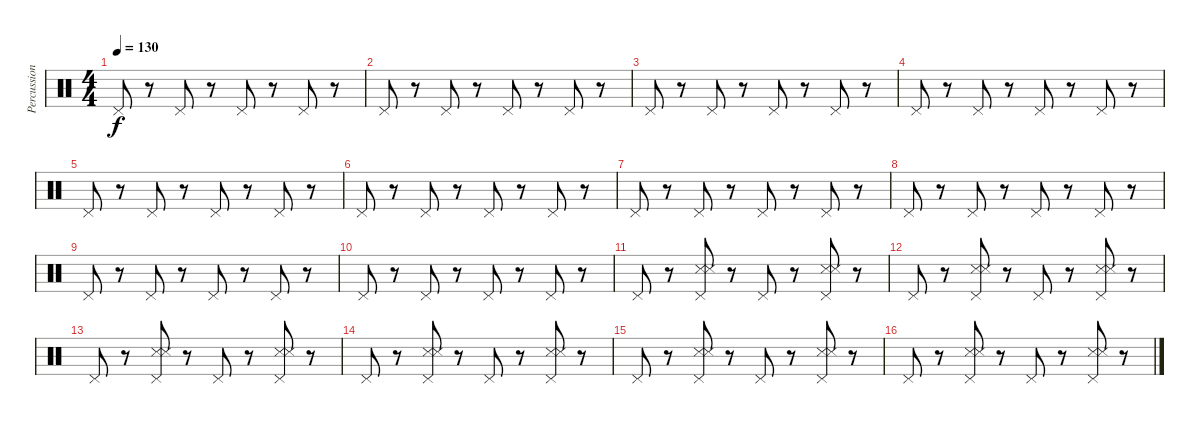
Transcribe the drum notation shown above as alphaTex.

\track ("Percussion" "Percussion") {instrument percussion}
\staff {score}
\articulation defaults
\ts (4 4)
\tempo 130
\clef neutral
\ks c "Pedal Hi-Hat (hit)".8{dy f}
r.8 "Pedal Hi-Hat (hit)".8 r.8 "Pedal Hi-Hat (hit)".8 r.8 "Pedal Hi-Hat (hit)".8 r.8 |
"Pedal Hi-Hat (hit)".8 r.8 "Pedal Hi-Hat (hit)".8 r.8 "Pedal Hi-Hat (hit)".8 r.8 "Pedal Hi-Hat (hit)".8 r.8 |
"Pedal Hi-Hat (hit)".8 r.8 "Pedal Hi-Hat (hit)".8 r.8 "Pedal Hi-Hat (hit)".8 r.8 "Pedal Hi-Hat (hit)".8 r.8 |
"Pedal Hi-Hat (hit)".8 r.8 "Pedal Hi-Hat (hit)".8 r.8 "Pedal Hi-Hat (hit)".8 r.8 "Pedal Hi-Hat (hit)".8 r.8 |
"Pedal Hi-Hat (hit)".8 r.8 "Pedal Hi-Hat (hit)".8 r.8 "Pedal Hi-Hat (hit)".8 r.8 "Pedal Hi-Hat (hit)".8 r.8 |
"Pedal Hi-Hat (hit)".8 r.8 "Pedal Hi-Hat (hit)".8 r.8 "Pedal Hi-Hat (hit)".8 r.8 "Pedal Hi-Hat (hit)".8 r.8 |
"Pedal Hi-Hat (hit)".8 r.8 "Pedal Hi-Hat (hit)".8 r.8 "Pedal Hi-Hat (hit)".8 r.8 "Pedal Hi-Hat (hit)".8 r.8 |
"Pedal Hi-Hat (hit)".8 r.8 "Pedal Hi-Hat (hit)".8 r.8 "Pedal Hi-Hat (hit)".8 r.8 "Pedal Hi-Hat (hit)".8 r.8 |
"Pedal Hi-Hat (hit)".8 r.8 "Pedal Hi-Hat (hit)".8 r.8 "Pedal Hi-Hat (hit)".8 r.8 "Pedal Hi-Hat (hit)".8 r.8 |
"Pedal Hi-Hat (hit)".8 r.8 "Pedal Hi-Hat (hit)".8 r.8 "Pedal Hi-Hat (hit)".8 r.8 "Pedal Hi-Hat (hit)".8 r.8 |
"Pedal Hi-Hat (hit)".8 r.8 ("Pedal Hi-Hat (hit)" "Snare (side stick) 3" "Snare (side stick) 3").8 r.8 "Pedal Hi-Hat (hit)".8 r.8 ("Pedal Hi-Hat (hit)" "Snare (side stick) 3" "Snare (side stick) 3").8 r.8 |
"Pedal Hi-Hat (hit)".8 r.8 ("Pedal Hi-Hat (hit)" "Snare (side stick) 3" "Snare (side stick) 3").8 r.8 "Pedal Hi-Hat (hit)".8 r.8 ("Pedal Hi-Hat (hit)" "Snare (side stick) 3" "Snare (side stick) 3").8 r.8 |
"Pedal Hi-Hat (hit)".8 r.8 ("Pedal Hi-Hat (hit)" "Snare (side stick) 3" "Snare (side stick) 3").8 r.8 "Pedal Hi-Hat (hit)".8 r.8 ("Pedal Hi-Hat (hit)" "Snare (side stick) 3" "Snare (side stick) 3").8 r.8 |
"Pedal Hi-Hat (hit)".8 r.8 ("Pedal Hi-Hat (hit)" "Snare (side stick) 3" "Snare (side stick) 3").8 r.8 "Pedal Hi-Hat (hit)".8 r.8 ("Pedal Hi-Hat (hit)" "Snare (side stick) 3" "Snare (side stick) 3").8 r.8 |
"Pedal Hi-Hat (hit)".8 r.8 ("Pedal Hi-Hat (hit)" "Snare (side stick) 3" "Snare (side stick) 3").8 r.8 "Pedal Hi-Hat (hit)".8 r.8 ("Pedal Hi-Hat (hit)" "Snare (side stick) 3" "Snare (side stick) 3").8 r.8 |
"Pedal Hi-Hat (hit)".8 r.8 ("Pedal Hi-Hat (hit)" "Snare (side stick) 3" "Snare (side stick) 3").8 r.8 "Pedal Hi-Hat (hit)".8 r.8 ("Pedal Hi-Hat (hit)" "Snare (side stick) 3" "Snare (side stick) 3").8 r.8
